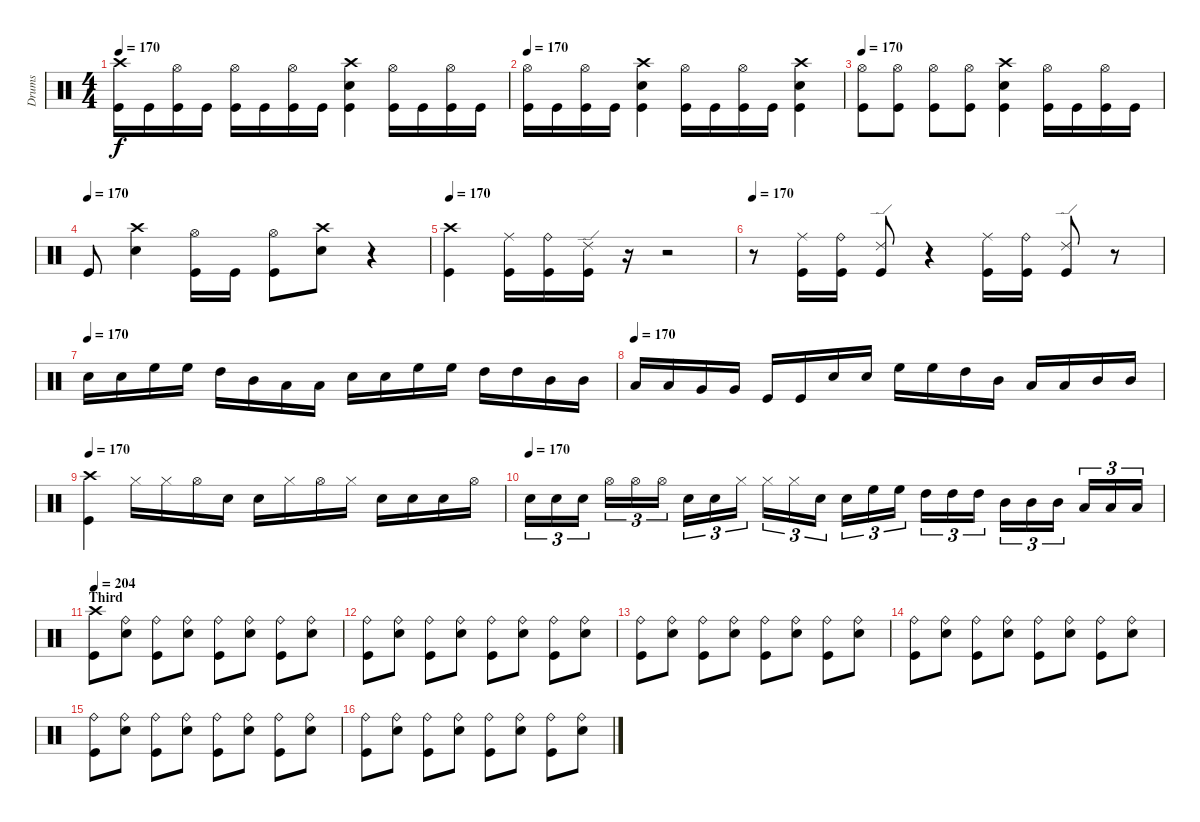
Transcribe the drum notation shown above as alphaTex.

\track ("Drums" "Drums") {instrument percussion}
\staff {score}
\articulation defaults
\ts (4 4)
\tempo 170
\clef neutral
\ks c
("Crash high (hit)" "Kick (hit)").16{dy f} "Kick (hit)".16 ("Hi-Hat (open)" "Kick (hit)").16 "Kick (hit)".16 ("Hi-Hat (open)" "Kick (hit)").16 "Kick (hit)".16 ("Hi-Hat (open)" "Kick (hit)").16 "Kick (hit)".16 ("Crash high (hit)" "Electric Snare (hit)" "Kick (hit)").4 ("Hi-Hat (open)" "Kick (hit)").16 "Kick (hit)".16 ("Hi-Hat (open)" "Kick (hit)").16 "Kick (hit)".16 |
\tempo 170
("Hi-Hat (open)" "Kick (hit)").16 "Kick (hit)".16 ("Hi-Hat (open)" "Kick (hit)").16 "Kick (hit)".16 ("Crash high (hit)" "Electric Snare (hit)" "Kick (hit)").4 ("Hi-Hat (open)" "Kick (hit)").16 "Kick (hit)".16 ("Hi-Hat (open)" "Kick (hit)").16 "Kick (hit)".16 ("Crash high (hit)" "Electric Snare (hit)" "Kick (hit)").4 |
\tempo 170
("Hi-Hat (open)" "Kick (hit)").8 ("Hi-Hat (open)" "Kick (hit)").8 ("Hi-Hat (open)" "Kick (hit)").8 ("Hi-Hat (open)" "Kick (hit)").8 ("Crash high (hit)" "Electric Snare (hit)" "Kick (hit)").4 ("Hi-Hat (open)" "Kick (hit)").16 "Kick (hit)".16 ("Hi-Hat (open)" "Kick (hit)").16 "Kick (hit)".16 |
\tempo (170)
"Kick (hit)".8 ("Crash high (hit)" "Electric Snare (hit)").4 ("Hi-Hat (open)" "Kick (hit)").16 "Kick (hit)".16 ("Hi-Hat (open)" "Kick (hit)").8 ("Crash high (hit)" "Electric Snare (hit)").8 r.4 |
\tempo 170
("Crash high (hit)" "Kick (hit)").4 ("Ride (middle)" "Kick (hit)").16 ("Ride (bell)" "Kick (hit)").16 ("Ride (edge) 2" "Kick (hit)").16 r.16 r.2 |
\tempo 170
r.8 ("Ride (middle)" "Kick (hit)").16 ("Ride (bell)" "Kick (hit)").16 ("Ride (edge) 2" "Kick (hit)").8 r.4 ("Ride (middle)" "Kick (hit)").16 ("Ride (bell)" "Kick (hit)").16 ("Ride (edge) 2" "Kick (hit)").8 r.8 |
\tempo (170)
"Electric Snare (hit)".16 "Electric Snare (hit)".16 "High Floor Tom (hit)".16 "High Floor Tom (hit)".16 "High Tom (hit)".16 "Mid Tom (hit)".16 "Low Tom (hit)".16 "Low Tom (hit)".16 "Electric Snare (hit)".16 "Electric Snare (hit)".16 "High Floor Tom (hit)".16 "High Floor Tom (hit)".16 "High Tom (hit)".16 "High Tom (hit)".16 "Mid Tom (hit)".16 "Mid Tom (hit)".16 |
\tempo (170)
"Low Tom (hit)".16 "Low Tom (hit)".16 "Very Low Tom (hit)".16 "Very Low Tom (hit)".16 "Kick (hit)".16 "Kick (hit)".16 "Electric Snare (hit)".16 "Electric Snare (hit)".16 "High Floor Tom (hit)".16 "High Floor Tom (hit)".16 "High Tom (hit)".16 "Mid Tom (hit)".16 "Low Tom (hit)".16 "Low Tom (hit)".16 "Mid Tom (hit)".16 "Mid Tom (hit)".16 |
\tempo 170
("Crash high (hit)" "Kick (hit)").4 "Hi-Hat (closed)".16 "Hi-Hat (closed)".16 "Hi-Hat (open)".16 "Electric Snare (hit)".16 "Electric Snare (hit)".16 "Hi-Hat (closed)".16 "Hi-Hat (open)".16 "Hi-Hat (closed)".16 "Electric Snare (hit)".16 "Electric Snare (hit)".16 "Electric Snare (hit)".16 "Hi-Hat (open)".16 |
\tempo (170)
"Electric Snare (hit)".16{tu (3 2)} "Electric Snare (hit)".16{tu (3 2)} "Electric Snare (hit)".16{tu (3 2)} "Hi-Hat (open)".16{tu (3 2)} "Hi-Hat (open)".16{tu (3 2)} "Hi-Hat (open)".16{tu (3 2)} "Electric Snare (hit)".16{tu (3 2)} "Electric Snare (hit)".16{tu (3 2)} "Hi-Hat (closed)".16{tu (3 2)} "Hi-Hat (closed)".16{tu (3 2)} "Hi-Hat (closed)".16{tu (3 2)} "Electric Snare (hit)".16{tu (3 2)} "Electric Snare (hit)".16{tu (3 2)} "High Floor Tom (hit)".16{tu (3 2)} "High Floor Tom (hit)".16{tu (3 2)} "High Tom (hit)".16{tu (3 2)} "High Tom (hit)".16{tu (3 2)} "High Tom (hit)".16{tu (3 2)} "Mid Tom (hit)".16{tu (3 2)} "Mid Tom (hit)".16{tu (3 2)} "Mid Tom (hit)".16{tu (3 2)} "Low Tom (hit)".16{tu (3 2)} "Low Tom (hit)".16{tu (3 2)} "Low Tom (hit)".16{tu (3 2)} |
\section ("" "Third")
\tempo 204
("Crash high (hit)" "Kick (hit)").8 ("Ride (bell)" "Electric Snare (hit)").8 ("Ride (bell)" "Kick (hit)").8 ("Ride (bell)" "Electric Snare (hit)").8 ("Ride (bell)" "Kick (hit)").8 ("Ride (bell)" "Electric Snare (hit)").8 ("Ride (bell)" "Kick (hit)").8 ("Ride (bell)" "Electric Snare (hit)").8 |
("Ride (bell)" "Kick (hit)").8 ("Ride (bell)" "Electric Snare (hit)").8 ("Ride (bell)" "Kick (hit)").8 ("Ride (bell)" "Electric Snare (hit)").8 ("Ride (bell)" "Kick (hit)").8 ("Ride (bell)" "Electric Snare (hit)").8 ("Ride (bell)" "Kick (hit)").8 ("Ride (bell)" "Electric Snare (hit)").8 |
("Ride (bell)" "Kick (hit)").8 ("Ride (bell)" "Electric Snare (hit)").8 ("Ride (bell)" "Kick (hit)").8 ("Ride (bell)" "Electric Snare (hit)").8 ("Ride (bell)" "Kick (hit)").8 ("Ride (bell)" "Electric Snare (hit)").8 ("Ride (bell)" "Kick (hit)").8 ("Ride (bell)" "Electric Snare (hit)").8 |
("Ride (bell)" "Kick (hit)").8 ("Ride (bell)" "Electric Snare (hit)").8 ("Ride (bell)" "Kick (hit)").8 ("Ride (bell)" "Electric Snare (hit)").8 ("Ride (bell)" "Kick (hit)").8 ("Ride (bell)" "Electric Snare (hit)").8 ("Ride (bell)" "Kick (hit)").8 ("Ride (bell)" "Electric Snare (hit)").8 |
("Ride (bell)" "Kick (hit)").8 ("Ride (bell)" "Electric Snare (hit)").8 ("Ride (bell)" "Kick (hit)").8 ("Ride (bell)" "Electric Snare (hit)").8 ("Ride (bell)" "Kick (hit)").8 ("Ride (bell)" "Electric Snare (hit)").8 ("Ride (bell)" "Kick (hit)").8 ("Ride (bell)" "Electric Snare (hit)").8 |
("Ride (bell)" "Kick (hit)").8 ("Ride (bell)" "Electric Snare (hit)").8 ("Ride (bell)" "Kick (hit)").8 ("Ride (bell)" "Electric Snare (hit)").8 ("Ride (bell)" "Kick (hit)").8 ("Ride (bell)" "Electric Snare (hit)").8 ("Ride (bell)" "Kick (hit)").8 ("Ride (bell)" "Electric Snare (hit)").8
